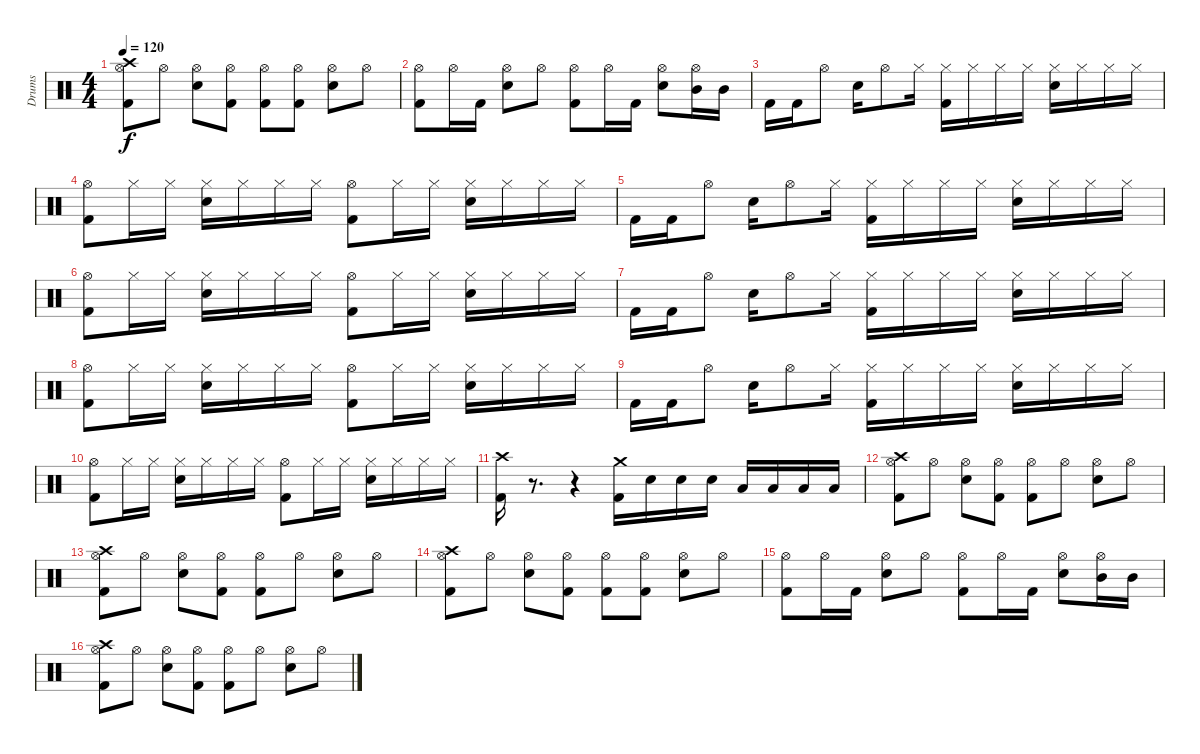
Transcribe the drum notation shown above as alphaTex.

\track ("Drums" "Drums") {instrument percussion}
\staff {score}
\articulation defaults
\ts (4 4)
\tempo 120
\clef neutral
\ks c
("Kick (hit) 2" "Hi-Hat (open)" "Crash high (hit)").8{dy f} "Hi-Hat (open)".8 ("Snare (hit) 2" "Hi-Hat (open)").8 ("Kick (hit) 2" "Hi-Hat (open)").8 ("Kick (hit) 2" "Hi-Hat (open)").8 ("Kick (hit) 2" "Hi-Hat (open)").8 ("Snare (hit) 2" "Hi-Hat (open)").8 "Hi-Hat (open)".8 |
("Kick (hit) 2" "Hi-Hat (open)").8 "Hi-Hat (open)".16 "Kick (hit) 2".16 ("Snare (hit) 2" "Hi-Hat (open)").8 "Hi-Hat (open)".8 ("Kick (hit) 2" "Hi-Hat (open)").8 "Hi-Hat (open)".16 "Kick (hit) 2".16 ("Snare (hit) 2" "Hi-Hat (open)").8 ("Hi-Hat (open)" "Mid Tom (hit)").16 "Mid Tom (hit)".16 |
"Kick (hit) 2".16 "Kick (hit) 2".16 "Hi-Hat (open)".8 "Snare (hit) 2".16 "Hi-Hat (open)".8 "Hi-Hat (closed)".16 ("Kick (hit) 2" "Hi-Hat (closed)").16 "Hi-Hat (closed)".16 "Hi-Hat (closed)".16 "Hi-Hat (closed)".16 ("Snare (hit) 2" "Hi-Hat (closed)").16 "Hi-Hat (closed)".16 "Hi-Hat (closed)".16 "Hi-Hat (closed)".16 |
("Kick (hit) 2" "Hi-Hat (open)").8 "Hi-Hat (closed)".16 "Hi-Hat (closed)".16 ("Snare (hit) 2" "Hi-Hat (closed)").16 "Hi-Hat (closed)".16 "Hi-Hat (closed)".16 "Hi-Hat (closed)".16 ("Kick (hit) 2" "Hi-Hat (open)").8 "Hi-Hat (closed)".16 "Hi-Hat (closed)".16 ("Snare (hit) 2" "Hi-Hat (closed)").16 "Hi-Hat (closed)".16 "Hi-Hat (closed)".16 "Hi-Hat (closed)".16 |
"Kick (hit) 2".16 "Kick (hit) 2".16 "Hi-Hat (open)".8 "Snare (hit) 2".16 "Hi-Hat (open)".8 "Hi-Hat (closed)".16 ("Kick (hit) 2" "Hi-Hat (closed)").16 "Hi-Hat (closed)".16 "Hi-Hat (closed)".16 "Hi-Hat (closed)".16 ("Snare (hit) 2" "Hi-Hat (closed)").16 "Hi-Hat (closed)".16 "Hi-Hat (closed)".16 "Hi-Hat (closed)".16 |
("Kick (hit) 2" "Hi-Hat (open)").8 "Hi-Hat (closed)".16 "Hi-Hat (closed)".16 ("Snare (hit) 2" "Hi-Hat (closed)").16 "Hi-Hat (closed)".16 "Hi-Hat (closed)".16 "Hi-Hat (closed)".16 ("Kick (hit) 2" "Hi-Hat (open)").8 "Hi-Hat (closed)".16 "Hi-Hat (closed)".16 ("Snare (hit) 2" "Hi-Hat (closed)").16 "Hi-Hat (closed)".16 "Hi-Hat (closed)".16 "Hi-Hat (closed)".16 |
"Kick (hit) 2".16 "Kick (hit) 2".16 "Hi-Hat (open)".8 "Snare (hit) 2".16 "Hi-Hat (open)".8 "Hi-Hat (closed)".16 ("Kick (hit) 2" "Hi-Hat (closed)").16 "Hi-Hat (closed)".16 "Hi-Hat (closed)".16 "Hi-Hat (closed)".16 ("Snare (hit) 2" "Hi-Hat (closed)").16 "Hi-Hat (closed)".16 "Hi-Hat (closed)".16 "Hi-Hat (closed)".16 |
("Kick (hit) 2" "Hi-Hat (open)").8 "Hi-Hat (closed)".16 "Hi-Hat (closed)".16 ("Snare (hit) 2" "Hi-Hat (closed)").16 "Hi-Hat (closed)".16 "Hi-Hat (closed)".16 "Hi-Hat (closed)".16 ("Kick (hit) 2" "Hi-Hat (open)").8 "Hi-Hat (closed)".16 "Hi-Hat (closed)".16 ("Snare (hit) 2" "Hi-Hat (closed)").16 "Hi-Hat (closed)".16 "Hi-Hat (closed)".16 "Hi-Hat (closed)".16 |
"Kick (hit) 2".16 "Kick (hit) 2".16 "Hi-Hat (open)".8 "Snare (hit) 2".16 "Hi-Hat (open)".8 "Hi-Hat (closed)".16 ("Kick (hit) 2" "Hi-Hat (closed)").16 "Hi-Hat (closed)".16 "Hi-Hat (closed)".16 "Hi-Hat (closed)".16 ("Snare (hit) 2" "Hi-Hat (closed)").16 "Hi-Hat (closed)".16 "Hi-Hat (closed)".16 "Hi-Hat (closed)".16 |
("Kick (hit) 2" "Hi-Hat (open)").8 "Hi-Hat (closed)".16 "Hi-Hat (closed)".16 ("Snare (hit) 2" "Hi-Hat (closed)").16 "Hi-Hat (closed)".16 "Hi-Hat (closed)".16 "Hi-Hat (closed)".16 ("Kick (hit) 2" "Hi-Hat (open)").8 "Hi-Hat (closed)".16 "Hi-Hat (closed)".16 ("Snare (hit) 2" "Hi-Hat (closed)").16 "Hi-Hat (closed)".16 "Hi-Hat (closed)".16 "Hi-Hat (closed)".16 |
("Kick (hit) 2" "Crash high (hit)").16 r.8{d} r.4 ("Kick (hit) 2" "Crash medium (hit)").16 "Snare (hit) 2".16 "Snare (hit) 2".16 "Snare (hit) 2".16 "Low Tom (hit)".16 "Low Tom (hit)".16 "Low Floor Tom (hit)".16 "Low Floor Tom (hit)".16 |
("Kick (hit) 2" "Hi-Hat (open)" "Crash high (hit)").8 "Hi-Hat (open)".8 ("Snare (hit) 2" "Hi-Hat (open)").8 ("Kick (hit) 2" "Hi-Hat (open)").8 ("Kick (hit) 2" "Hi-Hat (open)").8 "Hi-Hat (open)".8 ("Snare (hit) 2" "Hi-Hat (open)").8 "Hi-Hat (open)".8 |
("Kick (hit) 2" "Hi-Hat (open)" "Crash high (hit)").8 "Hi-Hat (open)".8 ("Snare (hit) 2" "Hi-Hat (open)").8 ("Kick (hit) 2" "Hi-Hat (open)").8 ("Kick (hit) 2" "Hi-Hat (open)").8 "Hi-Hat (open)".8 ("Snare (hit) 2" "Hi-Hat (open)").8 "Hi-Hat (open)".8 |
("Kick (hit) 2" "Hi-Hat (open)" "Crash high (hit)").8 "Hi-Hat (open)".8 ("Snare (hit) 2" "Hi-Hat (open)").8 ("Kick (hit) 2" "Hi-Hat (open)").8 ("Kick (hit) 2" "Hi-Hat (open)").8 ("Kick (hit) 2" "Hi-Hat (open)").8 ("Snare (hit) 2" "Hi-Hat (open)").8 "Hi-Hat (open)".8 |
("Kick (hit) 2" "Hi-Hat (open)").8 "Hi-Hat (open)".16 "Kick (hit) 2".16 ("Snare (hit) 2" "Hi-Hat (open)").8 "Hi-Hat (open)".8 ("Kick (hit) 2" "Hi-Hat (open)").8 "Hi-Hat (open)".16 "Kick (hit) 2".16 ("Snare (hit) 2" "Hi-Hat (open)").8 ("Hi-Hat (open)" "Mid Tom (hit)").16 "Mid Tom (hit)".16 |
("Kick (hit) 2" "Hi-Hat (open)" "Crash high (hit)").8 "Hi-Hat (open)".8 ("Snare (hit) 2" "Hi-Hat (open)").8 ("Kick (hit) 2" "Hi-Hat (open)").8 ("Kick (hit) 2" "Hi-Hat (open)").8 "Hi-Hat (open)".8 ("Snare (hit) 2" "Hi-Hat (open)").8 "Hi-Hat (open)".8
